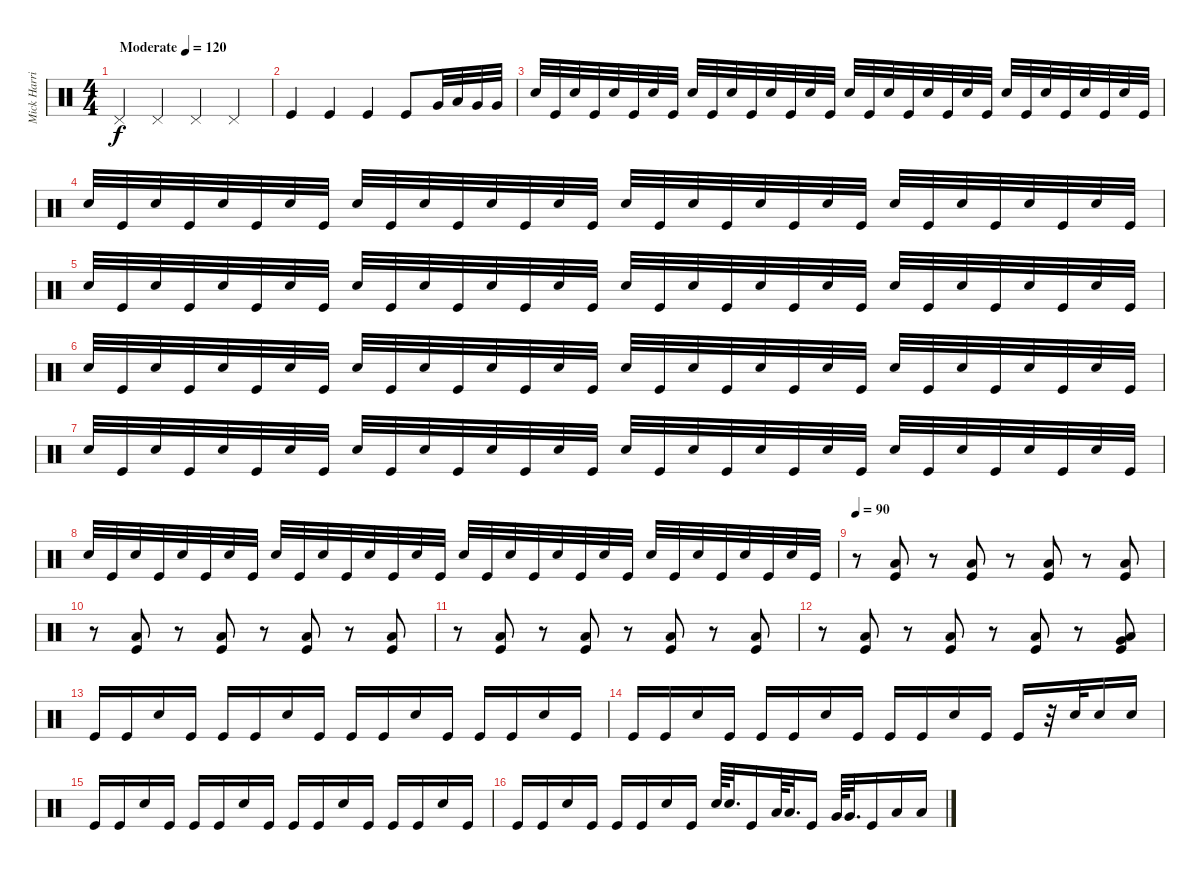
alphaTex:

\track ("Mick Harris" "Mick Harri") {instrument percussion}
\staff {score}
\articulation defaults
\ts (4 4)
\tempo (120 "Moderate")
\clef neutral
\ks c "Pedal Hi-Hat (hit)".4{dy f} "Pedal Hi-Hat (hit)".4 "Pedal Hi-Hat (hit)".4 "Pedal Hi-Hat (hit)".4
|
"Kick (hit)".4 "Kick (hit)".4 "Kick (hit)".4 "Kick (hit)".8 "Very Low Tom (hit)".32 "Low Tom (hit)".32 "Very Low Tom (hit)".32 "Very Low Tom (hit)".32 |
"Snare (hit) 2".32 "Kick (hit)".32 "Snare (hit) 2".32 "Kick (hit)".32 "Snare (hit) 2".32 "Kick (hit)".32 "Snare (hit) 2".32 "Kick (hit)".32 "Snare (hit) 2".32 "Kick (hit)".32 "Snare (hit) 2".32 "Kick (hit)".32 "Snare (hit) 2".32 "Kick (hit)".32 "Snare (hit) 2".32 "Kick (hit)".32 "Snare (hit) 2".32 "Kick (hit)".32 "Snare (hit) 2".32 "Kick (hit)".32 "Snare (hit) 2".32 "Kick (hit)".32 "Snare (hit) 2".32 "Kick (hit)".32 "Snare (hit) 2".32 "Kick (hit)".32 "Snare (hit) 2".32 "Kick (hit)".32 "Snare (hit) 2".32 "Kick (hit)".32 "Snare (hit) 2".32 "Kick (hit)".32 |
"Snare (hit) 2".32 "Kick (hit)".32 "Snare (hit) 2".32 "Kick (hit)".32 "Snare (hit) 2".32 "Kick (hit)".32 "Snare (hit) 2".32 "Kick (hit)".32 "Snare (hit) 2".32 "Kick (hit)".32 "Snare (hit) 2".32 "Kick (hit)".32 "Snare (hit) 2".32 "Kick (hit)".32 "Snare (hit) 2".32 "Kick (hit)".32 "Snare (hit) 2".32 "Kick (hit)".32 "Snare (hit) 2".32 "Kick (hit)".32 "Snare (hit) 2".32 "Kick (hit)".32 "Snare (hit) 2".32 "Kick (hit)".32 "Snare (hit) 2".32 "Kick (hit)".32 "Snare (hit) 2".32 "Kick (hit)".32 "Snare (hit) 2".32 "Kick (hit)".32 "Snare (hit) 2".32 "Kick (hit)".32 |
"Snare (hit) 2".32 "Kick (hit)".32 "Snare (hit) 2".32 "Kick (hit)".32 "Snare (hit) 2".32 "Kick (hit)".32 "Snare (hit) 2".32 "Kick (hit)".32 "Snare (hit) 2".32 "Kick (hit)".32 "Snare (hit) 2".32 "Kick (hit)".32 "Snare (hit) 2".32 "Kick (hit)".32 "Snare (hit) 2".32 "Kick (hit)".32 "Snare (hit) 2".32 "Kick (hit)".32 "Snare (hit) 2".32 "Kick (hit)".32 "Snare (hit) 2".32 "Kick (hit)".32 "Snare (hit) 2".32 "Kick (hit)".32 "Snare (hit) 2".32 "Kick (hit)".32 "Snare (hit) 2".32 "Kick (hit)".32 "Snare (hit) 2".32 "Kick (hit)".32 "Snare (hit) 2".32 "Kick (hit)".32 |
"Snare (hit) 2".32 "Kick (hit)".32 "Snare (hit) 2".32 "Kick (hit)".32 "Snare (hit) 2".32 "Kick (hit)".32 "Snare (hit) 2".32 "Kick (hit)".32 "Snare (hit) 2".32 "Kick (hit)".32 "Snare (hit) 2".32 "Kick (hit)".32 "Snare (hit) 2".32 "Kick (hit)".32 "Snare (hit) 2".32 "Kick (hit)".32 "Snare (hit) 2".32 "Kick (hit)".32 "Snare (hit) 2".32 "Kick (hit)".32 "Snare (hit) 2".32 "Kick (hit)".32 "Snare (hit) 2".32 "Kick (hit)".32 "Snare (hit) 2".32 "Kick (hit)".32 "Snare (hit) 2".32 "Kick (hit)".32 "Snare (hit) 2".32 "Kick (hit)".32 "Snare (hit) 2".32 "Kick (hit)".32 |
"Snare (hit) 2".32 "Kick (hit)".32 "Snare (hit) 2".32 "Kick (hit)".32 "Snare (hit) 2".32 "Kick (hit)".32 "Snare (hit) 2".32 "Kick (hit)".32 "Snare (hit) 2".32 "Kick (hit)".32 "Snare (hit) 2".32 "Kick (hit)".32 "Snare (hit) 2".32 "Kick (hit)".32 "Snare (hit) 2".32 "Kick (hit)".32 "Snare (hit) 2".32 "Kick (hit)".32 "Snare (hit) 2".32 "Kick (hit)".32 "Snare (hit) 2".32 "Kick (hit)".32 "Snare (hit) 2".32 "Kick (hit)".32 "Snare (hit) 2".32 "Kick (hit)".32 "Snare (hit) 2".32 "Kick (hit)".32 "Snare (hit) 2".32 "Kick (hit)".32 "Snare (hit) 2".32 "Kick (hit)".32 |
"Snare (hit) 2".32 "Kick (hit)".32 "Snare (hit) 2".32 "Kick (hit)".32 "Snare (hit) 2".32 "Kick (hit)".32 "Snare (hit) 2".32 "Kick (hit)".32 "Snare (hit) 2".32 "Kick (hit)".32 "Snare (hit) 2".32 "Kick (hit)".32 "Snare (hit) 2".32 "Kick (hit)".32 "Snare (hit) 2".32 "Kick (hit)".32 "Snare (hit) 2".32 "Kick (hit)".32 "Snare (hit) 2".32 "Kick (hit)".32 "Snare (hit) 2".32 "Kick (hit)".32 "Snare (hit) 2".32 "Kick (hit)".32 "Snare (hit) 2".32 "Kick (hit)".32 "Snare (hit) 2".32 "Kick (hit)".32 "Snare (hit) 2".32 "Kick (hit)".32 "Snare (hit) 2".32 "Kick (hit)".32 |
\tempo 90
r.8 ("Low Floor Tom (hit)" "Kick (hit)").8 r.8 ("Low Floor Tom (hit)" "Kick (hit)").8 r.8 ("Low Floor Tom (hit)" "Kick (hit)").8 r.8 ("Low Floor Tom (hit)" "Kick (hit)").8 |
r.8 ("Low Floor Tom (hit)" "Kick (hit)").8 r.8 ("Low Floor Tom (hit)" "Kick (hit)").8 r.8 ("Low Floor Tom (hit)" "Kick (hit)").8 r.8 ("Low Floor Tom (hit)" "Kick (hit)").8 |
r.8 ("Low Floor Tom (hit)" "Kick (hit)").8 r.8 ("Low Floor Tom (hit)" "Kick (hit)").8 r.8 ("Low Floor Tom (hit)" "Kick (hit)").8 r.8 ("Low Floor Tom (hit)" "Kick (hit)").8 |
r.8 ("Low Floor Tom (hit)" "Kick (hit)").8 r.8 ("Low Floor Tom (hit)" "Kick (hit)").8 r.8 ("Low Floor Tom (hit)" "Kick (hit)").8 r.8 ("Very Low Tom (hit)" "Low Floor Tom (hit)" "Kick (hit)").8 |
"Kick (hit)".16 "Kick (hit)".16 "Snare (hit) 2".16 "Kick (hit)".16 "Kick (hit)".16 "Kick (hit)".16 "Snare (hit) 2".16 "Kick (hit)".16 "Kick (hit)".16 "Kick (hit)".16 "Snare (hit) 2".16 "Kick (hit)".16 "Kick (hit)".16 "Kick (hit)".16 "Snare (hit) 2".16 "Kick (hit)".16 |
"Kick (hit)".16 "Kick (hit)".16 "Snare (hit) 2".16 "Kick (hit)".16 "Kick (hit)".16 "Kick (hit)".16 "Snare (hit) 2".16 "Kick (hit)".16 "Kick (hit)".16 "Kick (hit)".16 "Snare (hit) 2".16 "Kick (hit)".16 "Kick (hit)".16 r.32 "Snare (hit) 2".32 "Snare (hit) 2".16 "Snare (hit) 2".16 |
"Kick (hit)".16 "Kick (hit)".16 "Snare (hit) 2".16 "Kick (hit)".16 "Kick (hit)".16 "Kick (hit)".16 "Snare (hit) 2".16 "Kick (hit)".16 "Kick (hit)".16 "Kick (hit)".16 "Snare (hit) 2".16 "Kick (hit)".16 "Kick (hit)".16 "Kick (hit)".16 "Snare (hit) 2".16 "Kick (hit)".16 |
"Kick (hit)".16 "Kick (hit)".16 "Snare (hit) 2".16 "Kick (hit)".16 "Kick (hit)".16 "Kick (hit)".16 "Snare (hit) 2".16 "Kick (hit)".16 "Snare (hit) 2".64 "Snare (hit) 2".32{d} "Kick (hit)".16 "Low Tom (hit)".64 "Low Tom (hit)".32{d} "Kick (hit)".16 "Very Low Tom (hit)".64 "Very Low Tom (hit)".32{d} "Kick (hit)".16 "Low Floor Tom (hit)".16 "Low Floor Tom (hit)".16
